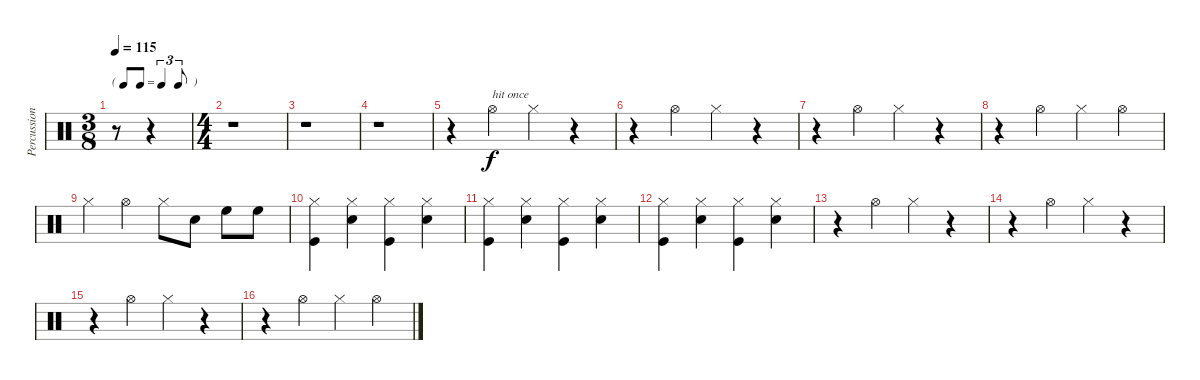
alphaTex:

\track ("Percussion" "Percussion") {instrument percussion}
\staff {score}
\articulation defaults
\ts (3 8)
\tf triplet8th
\tempo 115
\clef neutral
\ks c
r.8{dy f} r.4 |
\ts (4 4)
r.1 |
r.1 |
r.1 |
r.4 "Hi-Hat (open)".4{txt "hit once"} "Hi-Hat (closed)".4 r.4 |
r.4 "Hi-Hat (open)".4 "Hi-Hat (closed)".4 r.4 |
r.4 "Hi-Hat (open)".4 "Hi-Hat (closed)".4 r.4 |
r.4 "Hi-Hat (open)".4 "Hi-Hat (closed)".4 "Hi-Hat (open)".4 |
"Hi-Hat (closed)".4 "Hi-Hat (open)".4 "Hi-Hat (closed)".8 "Snare (hit) 2".8 "High Floor Tom (hit)".8 "High Floor Tom (hit)".8 |
("Hi-Hat (closed)" "Kick (hit)").4 ("Hi-Hat (closed)" "Snare (hit) 2").4 ("Hi-Hat (closed)" "Kick (hit)").4 ("Hi-Hat (closed)" "Snare (hit) 2").4 |
("Hi-Hat (closed)" "Kick (hit)").4 ("Hi-Hat (closed)" "Snare (hit) 2").4 ("Hi-Hat (closed)" "Kick (hit)").4 ("Hi-Hat (closed)" "Snare (hit) 2").4 |
("Hi-Hat (closed)" "Kick (hit)").4 ("Hi-Hat (closed)" "Snare (hit) 2").4 ("Hi-Hat (closed)" "Kick (hit)").4 ("Hi-Hat (closed)" "Snare (hit) 2").4 |
r.4 "Hi-Hat (open)".4 "Hi-Hat (closed)".4 r.4 |
r.4 "Hi-Hat (open)".4 "Hi-Hat (closed)".4 r.4 |
r.4 "Hi-Hat (open)".4 "Hi-Hat (closed)".4 r.4 |
r.4 "Hi-Hat (open)".4 "Hi-Hat (closed)".4 "Hi-Hat (open)".4
